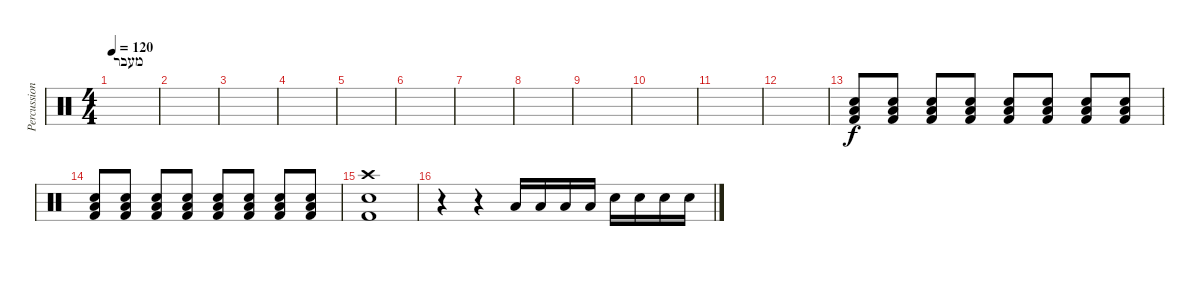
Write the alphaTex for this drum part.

\track ("Percussion" "Percussion") {instrument percussion}
\staff {score}
\articulation defaults
\ts (4 4)
\section ("" "מעבר")
\tempo 120
\clef neutral
\ks c
|
|
|
|
|
|
|
|
|
|
|
|
("Snare (hit) 2" "Low Floor Tom (hit)" "Kick (hit) 2").8 ("Snare (hit) 2" "Low Floor Tom (hit)" "Kick (hit) 2").8 ("Snare (hit) 2" "Low Floor Tom (hit)" "Kick (hit) 2").8 ("Snare (hit) 2" "Low Floor Tom (hit)" "Kick (hit) 2").8 ("Snare (hit) 2" "Low Floor Tom (hit)" "Kick (hit) 2").8 ("Snare (hit) 2" "Low Floor Tom (hit)" "Kick (hit) 2").8 ("Snare (hit) 2" "Low Floor Tom (hit)" "Kick (hit) 2").8 ("Snare (hit) 2" "Low Floor Tom (hit)" "Kick (hit) 2").8 |
("Snare (hit) 2" "Low Floor Tom (hit)" "Kick (hit) 2").8 ("Snare (hit) 2" "Low Floor Tom (hit)" "Kick (hit) 2").8 ("Snare (hit) 2" "Low Floor Tom (hit)" "Kick (hit) 2").8 ("Snare (hit) 2" "Low Floor Tom (hit)" "Kick (hit) 2").8 ("Snare (hit) 2" "Low Floor Tom (hit)" "Kick (hit) 2").8 ("Snare (hit) 2" "Low Floor Tom (hit)" "Kick (hit) 2").8 ("Snare (hit) 2" "Low Floor Tom (hit)" "Kick (hit) 2").8 ("Snare (hit) 2" "Low Floor Tom (hit)" "Kick (hit) 2").8 |
("Snare (hit) 2" "Crash high (hit)" "Kick (hit) 2").1 |
r.4 r.4 "Low Floor Tom (hit)".16 "Low Floor Tom (hit)".16 "Low Floor Tom (hit)".16 "Low Floor Tom (hit)".16 "Electric Snare (hit)".16 "Electric Snare (hit)".16 "Electric Snare (hit)".16 "Electric Snare (hit)".16
